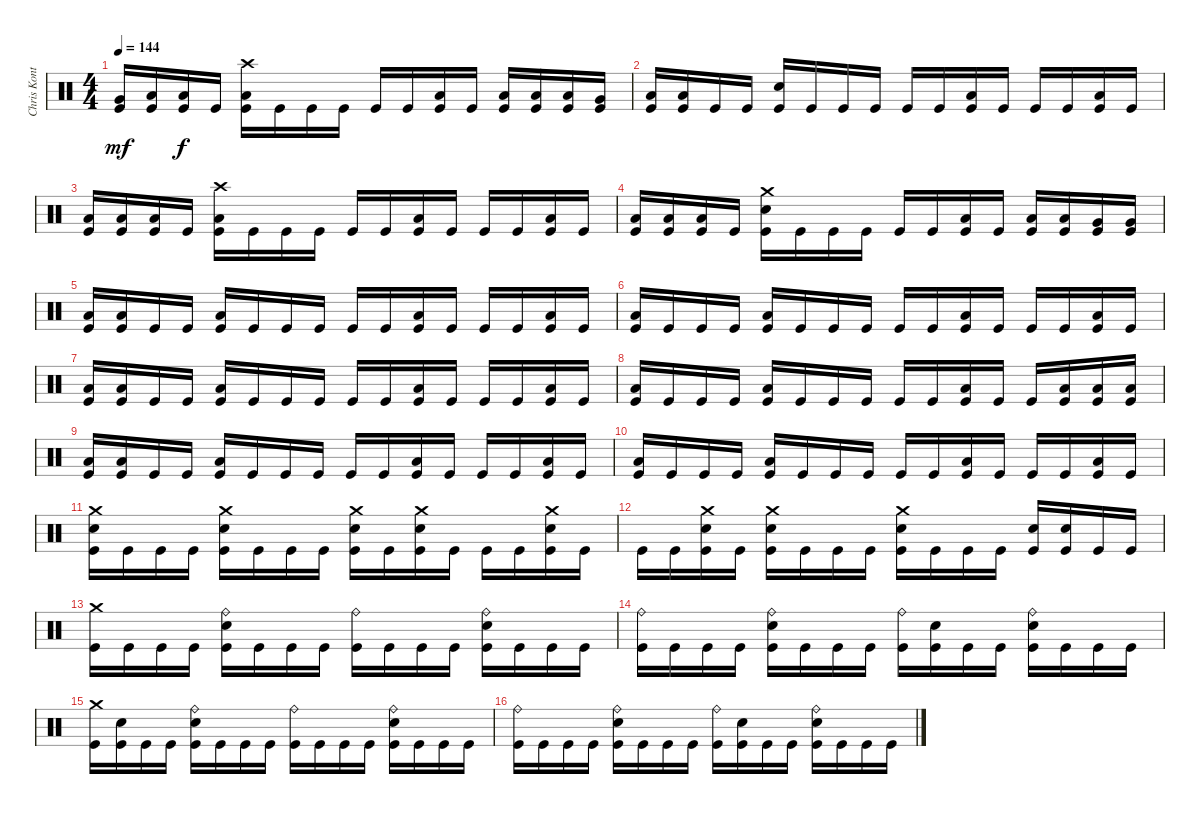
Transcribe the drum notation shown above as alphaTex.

\track ("Chris Kontos" "Chris Kont") {instrument percussion}
\staff {score}
\articulation defaults
\ts (4 4)
\tempo 144
\clef neutral
\ks c
("Very Low Tom (hit)" "Kick (hit)").16{dy mf} ("Low Floor Tom (hit)" "Kick (hit)").16 ("Low Floor Tom (hit)" "Kick (hit)").16{dy f} "Kick (hit)".16 ("Crash high (hit)" "Low Floor Tom (hit)" "Kick (hit)").16 "Kick (hit)".16 "Kick (hit)".16 "Kick (hit)".16 "Kick (hit)".16 "Kick (hit)".16 ("Low Floor Tom (hit)" "Kick (hit)").16 "Kick (hit)".16 ("Low Floor Tom (hit)" "Kick (hit)").16 ("Low Floor Tom (hit)" "Kick (hit)").16 ("Low Floor Tom (hit)" "Kick (hit)").16 ("Very Low Tom (hit)" "Kick (hit)").16 |
("Low Floor Tom (hit)" "Kick (hit)").16 ("Low Floor Tom (hit)" "Kick (hit)").16 "Kick (hit)".16 "Kick (hit)".16 ("Electric Snare (hit)" "Kick (hit)").16 "Kick (hit)".16 "Kick (hit)".16 "Kick (hit)".16 "Kick (hit)".16 "Kick (hit)".16 ("Low Floor Tom (hit)" "Kick (hit)").16 "Kick (hit)".16 "Kick (hit)".16 "Kick (hit)".16 ("Low Floor Tom (hit)" "Kick (hit)").16 "Kick (hit)".16 |
("Low Floor Tom (hit)" "Kick (hit)").16 ("Low Floor Tom (hit)" "Kick (hit)").16 ("Low Floor Tom (hit)" "Kick (hit)").16 "Kick (hit)".16 ("Crash high (hit)" "Low Floor Tom (hit)" "Kick (hit)").16 "Kick (hit)".16 "Kick (hit)".16 "Kick (hit)".16 "Kick (hit)".16 "Kick (hit)".16 ("Low Floor Tom (hit)" "Kick (hit)").16 "Kick (hit)".16 "Kick (hit)".16 "Kick (hit)".16 ("Low Floor Tom (hit)" "Kick (hit)").16 "Kick (hit)".16 |
("Low Floor Tom (hit)" "Kick (hit)").16 ("Low Floor Tom (hit)" "Kick (hit)").16 ("Low Floor Tom (hit)" "Kick (hit)").16 "Kick (hit)".16 ("Crash medium (hit)" "Electric Snare (hit)" "Kick (hit)").16 "Kick (hit)".16 "Kick (hit)".16 "Kick (hit)".16 "Kick (hit)".16 "Kick (hit)".16 ("Low Floor Tom (hit)" "Kick (hit)").16 "Kick (hit)".16 ("Low Tom (hit)" "Kick (hit)").16 ("Low Tom (hit)" "Kick (hit)").16 ("Very Low Tom (hit)" "Kick (hit)").16 ("Very Low Tom (hit)" "Kick (hit)").16 |
("Low Floor Tom (hit)" "Kick (hit)").16 ("Low Floor Tom (hit)" "Kick (hit)").16 "Kick (hit)".16 "Kick (hit)".16 ("Low Floor Tom (hit)" "Kick (hit)").16 "Kick (hit)".16 "Kick (hit)".16 "Kick (hit)".16 "Kick (hit)".16 "Kick (hit)".16 ("Low Floor Tom (hit)" "Kick (hit)").16 "Kick (hit)".16 "Kick (hit)".16 "Kick (hit)".16 ("Low Floor Tom (hit)" "Kick (hit)").16 "Kick (hit)".16 |
("Low Floor Tom (hit)" "Kick (hit)").16 "Kick (hit)".16 "Kick (hit)".16 "Kick (hit)".16 ("Low Floor Tom (hit)" "Kick (hit)").16 "Kick (hit)".16 "Kick (hit)".16 "Kick (hit)".16 "Kick (hit)".16 "Kick (hit)".16 ("Low Floor Tom (hit)" "Kick (hit)").16 "Kick (hit)".16 "Kick (hit)".16 "Kick (hit)".16 ("Low Floor Tom (hit)" "Kick (hit)").16 "Kick (hit)".16 |
("Low Floor Tom (hit)" "Kick (hit)").16 ("Low Floor Tom (hit)" "Kick (hit)").16 "Kick (hit)".16 "Kick (hit)".16 ("Low Floor Tom (hit)" "Kick (hit)").16 "Kick (hit)".16 "Kick (hit)".16 "Kick (hit)".16 "Kick (hit)".16 "Kick (hit)".16 ("Low Floor Tom (hit)" "Kick (hit)").16 "Kick (hit)".16 "Kick (hit)".16 "Kick (hit)".16 ("Low Floor Tom (hit)" "Kick (hit)").16 "Kick (hit)".16 |
("Low Floor Tom (hit)" "Kick (hit)").16 "Kick (hit)".16 "Kick (hit)".16 "Kick (hit)".16 ("Low Floor Tom (hit)" "Kick (hit)").16 "Kick (hit)".16 "Kick (hit)".16 "Kick (hit)".16 "Kick (hit)".16 "Kick (hit)".16 ("Low Floor Tom (hit)" "Kick (hit)").16 "Kick (hit)".16 "Kick (hit)".16 ("Low Floor Tom (hit)" "Kick (hit)").16 ("Low Floor Tom (hit)" "Kick (hit)").16 ("Low Floor Tom (hit)" "Kick (hit)").16 |
("Low Floor Tom (hit)" "Kick (hit)").16 ("Low Floor Tom (hit)" "Kick (hit)").16 "Kick (hit)".16 "Kick (hit)".16 ("Low Floor Tom (hit)" "Kick (hit)").16 "Kick (hit)".16 "Kick (hit)".16 "Kick (hit)".16 "Kick (hit)".16 "Kick (hit)".16 ("Low Floor Tom (hit)" "Kick (hit)").16 "Kick (hit)".16 "Kick (hit)".16 "Kick (hit)".16 ("Low Floor Tom (hit)" "Kick (hit)").16 "Kick (hit)".16 |
("Low Floor Tom (hit)" "Kick (hit)").16 "Kick (hit)".16 "Kick (hit)".16 "Kick (hit)".16 ("Low Floor Tom (hit)" "Kick (hit)").16 "Kick (hit)".16 "Kick (hit)".16 "Kick (hit)".16 "Kick (hit)".16 "Kick (hit)".16 ("Low Floor Tom (hit)" "Kick (hit)").16 "Kick (hit)".16 "Kick (hit)".16 "Kick (hit)".16 ("Low Floor Tom (hit)" "Kick (hit)").16 "Kick (hit)".16 |
("Crash medium (hit)" "Electric Snare (hit)" "Kick (hit)").16 "Kick (hit)".16 "Kick (hit)".16 "Kick (hit)".16 ("Crash medium (hit)" "Electric Snare (hit)" "Kick (hit)").16 "Kick (hit)".16 "Kick (hit)".16 "Kick (hit)".16 ("Crash medium (hit)" "Electric Snare (hit)" "Kick (hit)").16 "Kick (hit)".16 ("Crash medium (hit)" "Electric Snare (hit)" "Kick (hit)").16 "Kick (hit)".16 "Kick (hit)".16 "Kick (hit)".16 ("Crash medium (hit)" "Electric Snare (hit)" "Kick (hit)").16 "Kick (hit)".16 |
"Kick (hit)".16 "Kick (hit)".16 ("Crash medium (hit)" "Electric Snare (hit)" "Kick (hit)").16 "Kick (hit)".16 ("Crash medium (hit)" "Electric Snare (hit)" "Kick (hit)").16 "Kick (hit)".16 "Kick (hit)".16 "Kick (hit)".16 ("Crash medium (hit)" "Electric Snare (hit)" "Kick (hit)").16 "Kick (hit)".16 "Kick (hit)".16 "Kick (hit)".16 ("Electric Snare (hit)" "Kick (hit)").16 ("Electric Snare (hit)" "Kick (hit)").16 "Kick (hit)".16 "Kick (hit)".16 |
("Crash medium (hit)" "Kick (hit)").16 "Kick (hit)".16 "Kick (hit)".16 "Kick (hit)".16 ("Ride (bell)" "Electric Snare (hit)" "Kick (hit)").16 "Kick (hit)".16 "Kick (hit)".16 "Kick (hit)".16 ("Ride (bell)" "Kick (hit)").16 "Kick (hit)".16 "Kick (hit)".16 "Kick (hit)".16 ("Ride (bell)" "Electric Snare (hit)" "Kick (hit)").16 "Kick (hit)".16 "Kick (hit)".16 "Kick (hit)".16 |
("Ride (bell)" "Kick (hit)").16 "Kick (hit)".16 "Kick (hit)".16 "Kick (hit)".16 ("Ride (bell)" "Electric Snare (hit)" "Kick (hit)").16 "Kick (hit)".16 "Kick (hit)".16 "Kick (hit)".16 ("Ride (bell)" "Kick (hit)").16 ("Electric Snare (hit)" "Kick (hit)").16 "Kick (hit)".16 "Kick (hit)".16 ("Ride (bell)" "Electric Snare (hit)" "Kick (hit)").16 "Kick (hit)".16 "Kick (hit)".16 "Kick (hit)".16 |
("Crash medium (hit)" "Kick (hit)").16 ("Electric Snare (hit)" "Kick (hit)").16 "Kick (hit)".16 "Kick (hit)".16 ("Ride (bell)" "Electric Snare (hit)" "Kick (hit)").16 "Kick (hit)".16 "Kick (hit)".16 "Kick (hit)".16 ("Ride (bell)" "Kick (hit)").16 "Kick (hit)".16 "Kick (hit)".16 "Kick (hit)".16 ("Ride (bell)" "Electric Snare (hit)" "Kick (hit)").16 "Kick (hit)".16 "Kick (hit)".16 "Kick (hit)".16 |
("Ride (bell)" "Kick (hit)").16 "Kick (hit)".16 "Kick (hit)".16 "Kick (hit)".16 ("Ride (bell)" "Electric Snare (hit)" "Kick (hit)").16 "Kick (hit)".16 "Kick (hit)".16 "Kick (hit)".16 ("Ride (bell)" "Kick (hit)").16 ("Electric Snare (hit)" "Kick (hit)").16 "Kick (hit)".16 "Kick (hit)".16 ("Ride (bell)" "Electric Snare (hit)" "Kick (hit)").16 "Kick (hit)".16 "Kick (hit)".16 "Kick (hit)".16
